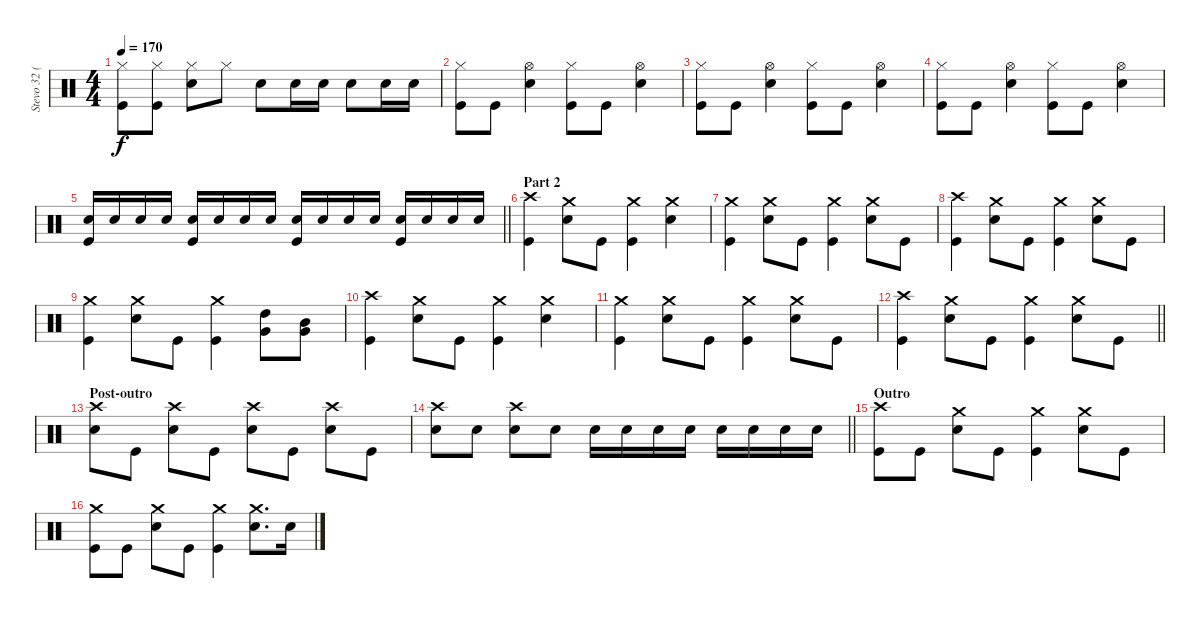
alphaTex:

\track ("Stevo 32 (Drums)" "Stevo 32 (") {instrument percussion}
\staff {score}
\articulation defaults
\ts (4 4)
\tempo 170
\clef neutral
\ks c
("Hi-Hat (closed)" "Kick (hit)").8{dy f} ("Hi-Hat (closed)" "Kick (hit)").8 ("Hi-Hat (closed)" "Electric Snare (hit)").8 "Hi-Hat (closed)".8 "Electric Snare (hit)".8 "Electric Snare (hit)".16 "Electric Snare (hit)".16 "Electric Snare (hit)".8 "Electric Snare (hit)".16 "Electric Snare (hit)".16 |
("Hi-Hat (closed)" "Kick (hit)").8 "Kick (hit)".8 ("Hi-Hat (open)" "Electric Snare (hit)").4 ("Hi-Hat (closed)" "Kick (hit)").8 "Kick (hit)".8 ("Hi-Hat (open)" "Electric Snare (hit)").4 |
("Hi-Hat (closed)" "Kick (hit)").8 "Kick (hit)".8 ("Hi-Hat (open)" "Electric Snare (hit)").4 ("Hi-Hat (closed)" "Kick (hit)").8 "Kick (hit)".8 ("Hi-Hat (open)" "Electric Snare (hit)").4 |
("Hi-Hat (closed)" "Kick (hit)").8 "Kick (hit)".8 ("Hi-Hat (open)" "Electric Snare (hit)").4 ("Hi-Hat (closed)" "Kick (hit)").8 "Kick (hit)".8 ("Hi-Hat (open)" "Electric Snare (hit)").4 |
\barLineRight lightlight
("Electric Snare (hit)" "Kick (hit)").16 "Electric Snare (hit)".16 "Electric Snare (hit)".16 "Electric Snare (hit)".16 ("Electric Snare (hit)" "Kick (hit)").16 "Electric Snare (hit)".16 "Electric Snare (hit)".16 "Electric Snare (hit)".16 ("Electric Snare (hit)" "Kick (hit)").16 "Electric Snare (hit)".16 "Electric Snare (hit)".16 "Electric Snare (hit)".16 ("Electric Snare (hit)" "Kick (hit)").16 "Electric Snare (hit)".16 "Electric Snare (hit)".16 "Electric Snare (hit)".16 |
\section ("" "Part 2")
("Crash high (hit)" "Kick (hit)").4 ("Crash medium (hit)" "Electric Snare (hit)").8 "Kick (hit)".8 ("Crash medium (hit)" "Kick (hit)").4 ("Crash medium (hit)" "Electric Snare (hit)").4 |
("Crash medium (hit)" "Kick (hit)").4 ("Crash medium (hit)" "Electric Snare (hit)").8 "Kick (hit)".8 ("Crash medium (hit)" "Kick (hit)").4 ("Crash medium (hit)" "Electric Snare (hit)").8 "Kick (hit)".8 |
("Crash high (hit)" "Kick (hit)").4 ("Crash medium (hit)" "Electric Snare (hit)").8 "Kick (hit)".8 ("Crash medium (hit)" "Kick (hit)").4 ("Crash medium (hit)" "Electric Snare (hit)").8 "Kick (hit)".8 |
("Crash medium (hit)" "Kick (hit)").4 ("Crash medium (hit)" "Electric Snare (hit)").8 "Kick (hit)".8 ("Crash medium (hit)" "Kick (hit)").4 ("High Tom (hit)" "Very Low Tom (hit)").8 ("Mid Tom (hit)" "Very Low Tom (hit)").8 |
("Crash high (hit)" "Kick (hit)").4 ("Crash medium (hit)" "Electric Snare (hit)").8 "Kick (hit)".8 ("Crash medium (hit)" "Kick (hit)").4 ("Crash medium (hit)" "Electric Snare (hit)").4 |
("Crash medium (hit)" "Kick (hit)").4 ("Crash medium (hit)" "Electric Snare (hit)").8 "Kick (hit)".8 ("Crash medium (hit)" "Kick (hit)").4 ("Crash medium (hit)" "Electric Snare (hit)").8 "Kick (hit)".8 |
\barLineRight lightlight
("Crash high (hit)" "Kick (hit)").4 ("Crash medium (hit)" "Electric Snare (hit)").8 "Kick (hit)".8 ("Crash medium (hit)" "Kick (hit)").4 ("Crash medium (hit)" "Electric Snare (hit)").8 "Kick (hit)".8 |
\section ("" "Post-outro")
("Crash high (hit)" "Electric Snare (hit)").8 "Kick (hit)".8 ("Crash high (hit)" "Electric Snare (hit)").8 "Kick (hit)".8 ("Crash high (hit)" "Electric Snare (hit)").8 "Kick (hit)".8 ("Crash high (hit)" "Electric Snare (hit)").8 "Kick (hit)".8 |
\barLineRight lightlight
("Crash high (hit)" "Electric Snare (hit)").8 "Electric Snare (hit)".8 ("Crash high (hit)" "Electric Snare (hit)").8 "Electric Snare (hit)".8 "Electric Snare (hit)".16 "Electric Snare (hit)".16 "Electric Snare (hit)".16 "Electric Snare (hit)".16 "Electric Snare (hit)".16 "Electric Snare (hit)".16 "Electric Snare (hit)".16 "Electric Snare (hit)".16 |
\section ("" "Outro")
("Crash high (hit)" "Kick (hit)").8 "Kick (hit)".8 ("Crash medium (hit)" "Electric Snare (hit)").8 "Kick (hit)".8 ("Crash medium (hit)" "Kick (hit)").4 ("Crash medium (hit)" "Electric Snare (hit)").8 "Kick (hit)".8 |
("Crash medium (hit)" "Kick (hit)").8 "Kick (hit)".8 ("Crash medium (hit)" "Electric Snare (hit)").8 "Kick (hit)".8 ("Crash medium (hit)" "Kick (hit)").4 ("Crash medium (hit)" "Electric Snare (hit)").8{d} "Electric Snare (hit)".16
